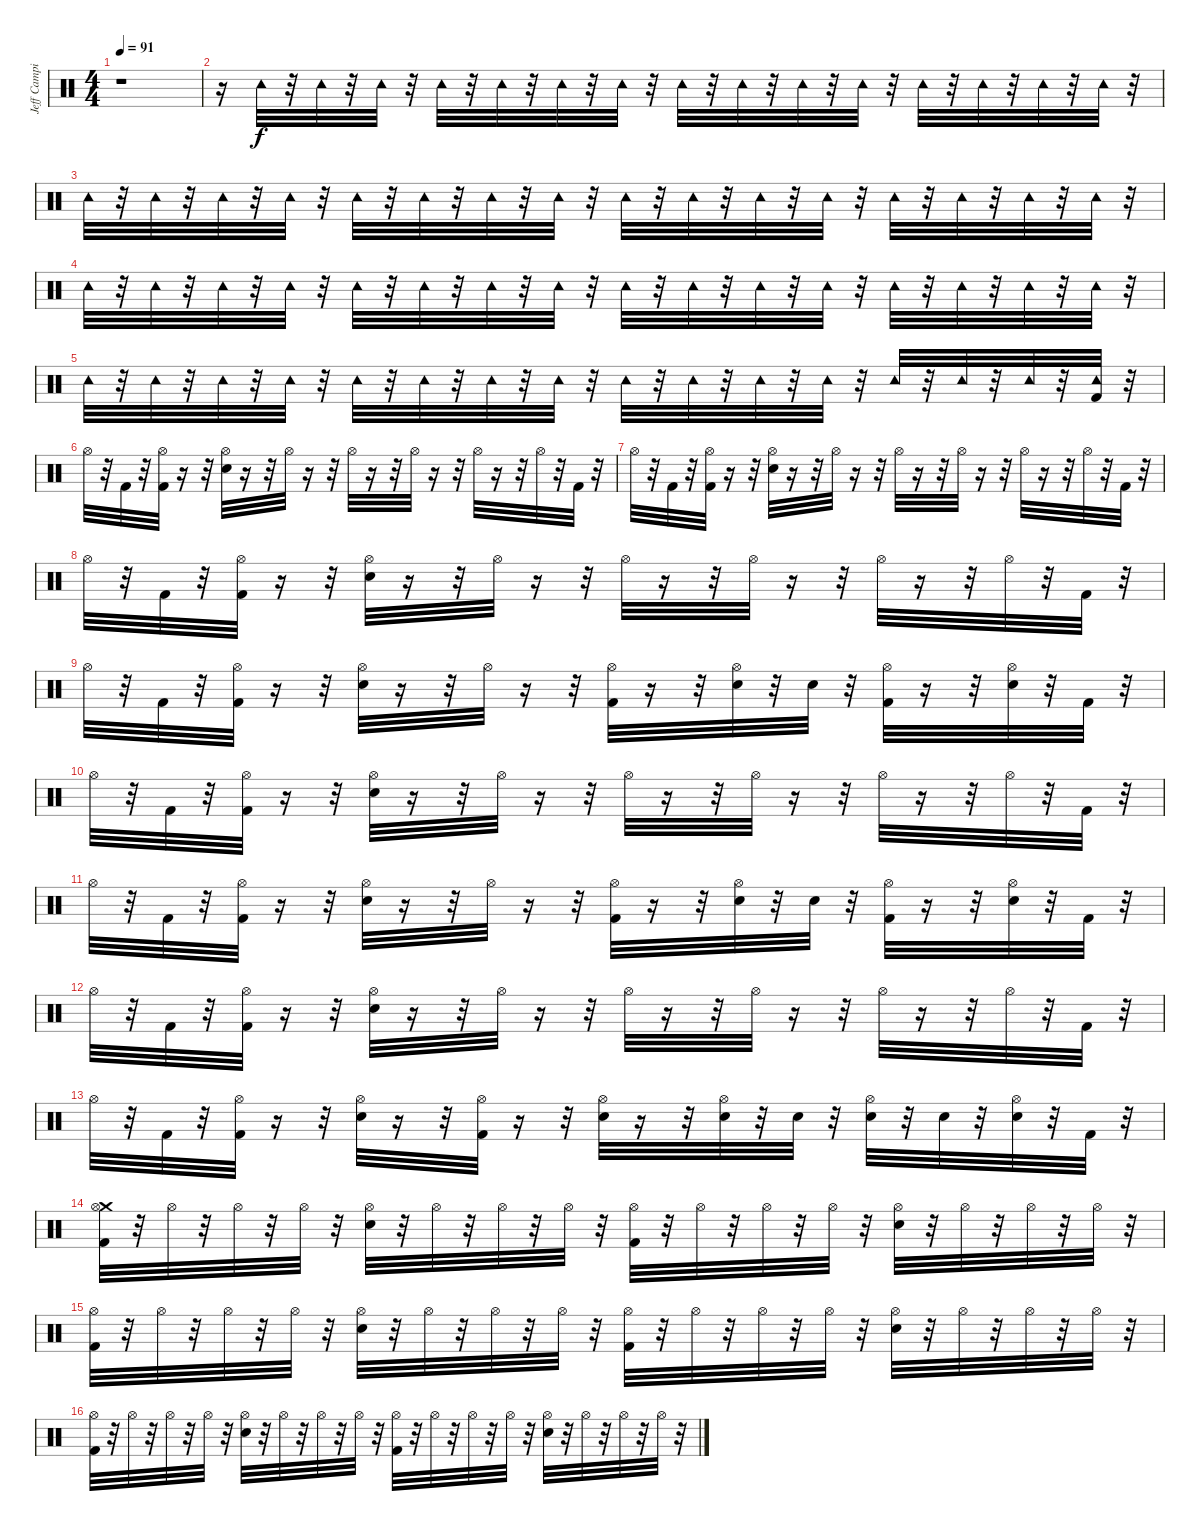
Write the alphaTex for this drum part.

\track ("Jeff Campitelli" "Jeff Campi") {instrument percussion}
\staff {score}
\articulation defaults
\ts (4 4)
\tempo 91
\clef neutral
\ks c
r.1{dy f volume 0} |
r.16{volume 16} "Tambourine (hit)".32 r.32 "Tambourine (hit)".32 r.32 "Tambourine (hit)".32 r.32 "Tambourine (hit)".32 r.32 "Tambourine (hit)".32 r.32 "Tambourine (hit)".32 r.32 "Tambourine (hit)".32 r.32 "Tambourine (hit)".32 r.32 "Tambourine (hit)".32 r.32 "Tambourine (hit)".32 r.32 "Tambourine (hit)".32 r.32 "Tambourine (hit)".32 r.32 "Tambourine (hit)".32 r.32 "Tambourine (hit)".32 r.32 "Tambourine (hit)".32 r.32 |
"Tambourine (hit)".32 r.32 "Tambourine (hit)".32 r.32 "Tambourine (hit)".32 r.32 "Tambourine (hit)".32 r.32 "Tambourine (hit)".32 r.32 "Tambourine (hit)".32 r.32 "Tambourine (hit)".32 r.32 "Tambourine (hit)".32 r.32 "Tambourine (hit)".32 r.32 "Tambourine (hit)".32 r.32 "Tambourine (hit)".32 r.32 "Tambourine (hit)".32 r.32 "Tambourine (hit)".32 r.32 "Tambourine (hit)".32 r.32 "Tambourine (hit)".32 r.32 "Tambourine (hit)".32 r.32 |
"Tambourine (hit)".32 r.32 "Tambourine (hit)".32 r.32 "Tambourine (hit)".32 r.32 "Tambourine (hit)".32 r.32 "Tambourine (hit)".32 r.32 "Tambourine (hit)".32 r.32 "Tambourine (hit)".32 r.32 "Tambourine (hit)".32 r.32 "Tambourine (hit)".32 r.32 "Tambourine (hit)".32 r.32 "Tambourine (hit)".32 r.32 "Tambourine (hit)".32 r.32 "Tambourine (hit)".32 r.32 "Tambourine (hit)".32 r.32 "Tambourine (hit)".32 r.32 "Tambourine (hit)".32 r.32 |
"Tambourine (hit)".32 r.32 "Tambourine (hit)".32 r.32 "Tambourine (hit)".32 r.32 "Tambourine (hit)".32 r.32 "Tambourine (hit)".32 r.32 "Tambourine (hit)".32 r.32 "Tambourine (hit)".32 r.32 "Tambourine (hit)".32 r.32 "Tambourine (hit)".32 r.32 "Tambourine (hit)".32 r.32 "Tambourine (hit)".32 r.32 "Tambourine (hit)".32 r.32 "Tambourine (hit)".32 r.32 "Tambourine (hit)".32 r.32 "Tambourine (hit)".32 r.32 ("Kick (hit) 2" "Tambourine (hit)").32 r.32 |
"Hi-Hat (open)".32 r.32 "Kick (hit) 2".32 r.32 ("Hi-Hat (open)" "Kick (hit) 2").32 r.16 r.32 ("Hi-Hat (open)" "Snare (hit) 2").32 r.16 r.32 "Hi-Hat (open)".32 r.16 r.32 "Hi-Hat (open)".32 r.16 r.32 "Hi-Hat (open)".32 r.16 r.32 "Hi-Hat (open)".32 r.16 r.32 "Hi-Hat (open)".32 r.32 "Kick (hit) 2".32 r.32 |
"Hi-Hat (open)".32 r.32 "Kick (hit) 2".32 r.32 ("Hi-Hat (open)" "Kick (hit) 2").32 r.16 r.32 ("Hi-Hat (open)" "Snare (hit) 2").32 r.16 r.32 "Hi-Hat (open)".32 r.16 r.32 "Hi-Hat (open)".32 r.16 r.32 "Hi-Hat (open)".32 r.16 r.32 "Hi-Hat (open)".32 r.16 r.32 "Hi-Hat (open)".32 r.32 "Kick (hit) 2".32 r.32 |
"Hi-Hat (open)".32 r.32 "Kick (hit) 2".32 r.32 ("Hi-Hat (open)" "Kick (hit) 2").32 r.16 r.32 ("Hi-Hat (open)" "Snare (hit) 2").32 r.16 r.32 "Hi-Hat (open)".32 r.16 r.32 "Hi-Hat (open)".32 r.16 r.32 "Hi-Hat (open)".32 r.16 r.32 "Hi-Hat (open)".32 r.16 r.32 "Hi-Hat (open)".32 r.32 "Kick (hit) 2".32 r.32 |
"Hi-Hat (open)".32 r.32 "Kick (hit) 2".32 r.32 ("Hi-Hat (open)" "Kick (hit) 2").32 r.16 r.32 ("Hi-Hat (open)" "Snare (hit) 2").32 r.16 r.32 "Hi-Hat (open)".32 r.16 r.32 ("Kick (hit) 2" "Hi-Hat (open)").32 r.16 r.32 ("Snare (hit) 2" "Hi-Hat (open)").32 r.32 "Snare (hit) 2".32 r.32 ("Kick (hit) 2" "Hi-Hat (open)").32 r.16 r.32 ("Snare (hit) 2" "Hi-Hat (open)").32 r.32 "Kick (hit) 2".32 r.32 |
"Hi-Hat (open)".32 r.32 "Kick (hit) 2".32 r.32 ("Hi-Hat (open)" "Kick (hit) 2").32 r.16 r.32 ("Hi-Hat (open)" "Snare (hit) 2").32 r.16 r.32 "Hi-Hat (open)".32 r.16 r.32 "Hi-Hat (open)".32 r.16 r.32 "Hi-Hat (open)".32 r.16 r.32 "Hi-Hat (open)".32 r.16 r.32 "Hi-Hat (open)".32 r.32 "Kick (hit) 2".32 r.32 |
"Hi-Hat (open)".32 r.32 "Kick (hit) 2".32 r.32 ("Hi-Hat (open)" "Kick (hit) 2").32 r.16 r.32 ("Hi-Hat (open)" "Snare (hit) 2").32 r.16 r.32 "Hi-Hat (open)".32 r.16 r.32 ("Kick (hit) 2" "Hi-Hat (open)").32 r.16 r.32 ("Snare (hit) 2" "Hi-Hat (open)").32 r.32 "Snare (hit) 2".32 r.32 ("Kick (hit) 2" "Hi-Hat (open)").32 r.16 r.32 ("Snare (hit) 2" "Hi-Hat (open)").32 r.32 "Kick (hit) 2".32 r.32 |
"Hi-Hat (open)".32 r.32 "Kick (hit) 2".32 r.32 ("Hi-Hat (open)" "Kick (hit) 2").32 r.16 r.32 ("Hi-Hat (open)" "Snare (hit) 2").32 r.16 r.32 "Hi-Hat (open)".32 r.16 r.32 "Hi-Hat (open)".32 r.16 r.32 "Hi-Hat (open)".32 r.16 r.32 "Hi-Hat (open)".32 r.16 r.32 "Hi-Hat (open)".32 r.32 "Kick (hit) 2".32 r.32 |
"Hi-Hat (open)".32 r.32 "Kick (hit) 2".32 r.32 ("Hi-Hat (open)" "Kick (hit) 2").32 r.16 r.32 ("Hi-Hat (open)" "Snare (hit) 2").32 r.16 r.32 ("Kick (hit) 2" "Hi-Hat (open)").32 r.16 r.32 ("Snare (hit) 2" "Hi-Hat (open)").32 r.16 r.32 ("Snare (hit) 2" "Hi-Hat (open)").32 r.32 "Snare (hit) 2".32 r.32 ("Snare (hit) 2" "Hi-Hat (open)").32 r.32 "Snare (hit) 2".32 r.32 ("Snare (hit) 2" "Hi-Hat (open)").32 r.32 "Kick (hit) 2".32 r.32 |
("Crash medium (hit)" "Kick (hit) 2" "Hi-Hat (open)").32 r.32 "Hi-Hat (open)".32 r.32 "Hi-Hat (open)".32 r.32 "Hi-Hat (open)".32 r.32 ("Snare (hit) 2" "Hi-Hat (open)").32 r.32 "Hi-Hat (open)".32 r.32 "Hi-Hat (open)".32 r.32 "Hi-Hat (open)".32 r.32 ("Kick (hit) 2" "Hi-Hat (open)").32 r.32 "Hi-Hat (open)".32 r.32 "Hi-Hat (open)".32 r.32 "Hi-Hat (open)".32 r.32 ("Snare (hit) 2" "Hi-Hat (open)").32 r.32 "Hi-Hat (open)".32 r.32 "Hi-Hat (open)".32 r.32 "Hi-Hat (open)".32 r.32 |
("Kick (hit) 2" "Hi-Hat (open)").32 r.32 "Hi-Hat (open)".32 r.32 "Hi-Hat (open)".32 r.32 "Hi-Hat (open)".32 r.32 ("Snare (hit) 2" "Hi-Hat (open)").32 r.32 "Hi-Hat (open)".32 r.32 "Hi-Hat (open)".32 r.32 "Hi-Hat (open)".32 r.32 ("Kick (hit) 2" "Hi-Hat (open)").32 r.32 "Hi-Hat (open)".32 r.32 "Hi-Hat (open)".32 r.32 "Hi-Hat (open)".32 r.32 ("Snare (hit) 2" "Hi-Hat (open)").32 r.32 "Hi-Hat (open)".32 r.32 "Hi-Hat (open)".32 r.32 "Hi-Hat (open)".32 r.32 |
("Kick (hit) 2" "Hi-Hat (open)").32 r.32 "Hi-Hat (open)".32 r.32 "Hi-Hat (open)".32 r.32 "Hi-Hat (open)".32 r.32 ("Snare (hit) 2" "Hi-Hat (open)").32 r.32 "Hi-Hat (open)".32 r.32 "Hi-Hat (open)".32 r.32 "Hi-Hat (open)".32 r.32 ("Kick (hit) 2" "Hi-Hat (open)").32 r.32 "Hi-Hat (open)".32 r.32 "Hi-Hat (open)".32 r.32 "Hi-Hat (open)".32 r.32 ("Snare (hit) 2" "Hi-Hat (open)").32 r.32 "Hi-Hat (open)".32 r.32 "Hi-Hat (open)".32 r.32 "Hi-Hat (open)".32 r.32
